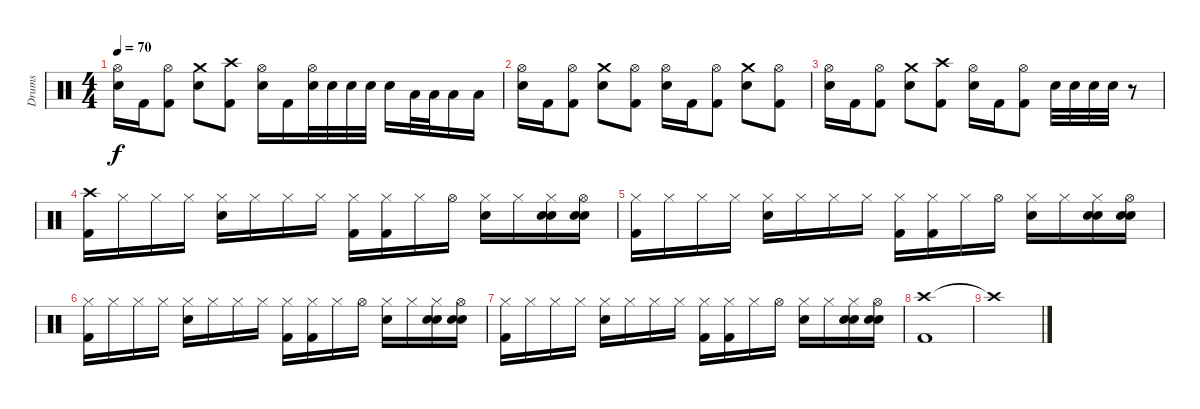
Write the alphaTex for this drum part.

\track ("Drums" "Drums") {instrument percussion}
\staff {score}
\articulation defaults
\ts (4 4)
\tempo 70
\clef neutral
\ks c
("Hi-Hat (open)" "Electric Snare (hit)").16{dy f} "Kick (hit) 2".16 ("Hi-Hat (open)" "Kick (hit) 2").8 ("Crash medium (hit)" "Electric Snare (hit)").8 ("Crash high (hit)" "Kick (hit) 2").8 ("Hi-Hat (open)" "Electric Snare (hit)").16 "Kick (hit) 2".16 ("Hi-Hat (open)" "Electric Snare (hit)").32 "Electric Snare (hit)".32 "Electric Snare (hit)".32 "Electric Snare (hit)".32 "Electric Snare (hit)".16 "Low Floor Tom (hit)".32 "Low Floor Tom (hit)".32 "Low Floor Tom (hit)".16 "Low Floor Tom (hit)".16 |
("Hi-Hat (open)" "Electric Snare (hit)").16 "Kick (hit) 2".16 ("Hi-Hat (open)" "Kick (hit) 2").8 ("Crash medium (hit)" "Electric Snare (hit)").8 ("Hi-Hat (open)" "Kick (hit) 2").8 ("Hi-Hat (open)" "Electric Snare (hit)").16 "Kick (hit) 2".16 ("Hi-Hat (open)" "Kick (hit) 2").8 ("Crash medium (hit)" "Electric Snare (hit)").8 ("Hi-Hat (open)" "Kick (hit) 2").8 |
("Hi-Hat (open)" "Electric Snare (hit)").16 "Kick (hit) 2".16 ("Hi-Hat (open)" "Kick (hit) 2").8 ("Crash medium (hit)" "Electric Snare (hit)").8 ("Crash high (hit)" "Kick (hit) 2").8 ("Hi-Hat (open)" "Electric Snare (hit)").16 "Kick (hit) 2".16 ("Hi-Hat (open)" "Kick (hit) 2").8 "Electric Snare (hit)".32 "Electric Snare (hit)".32 "Electric Snare (hit)".32 "Electric Snare (hit)".32 r.8 |
("Crash high (hit)" "Kick (hit) 2").16 "Hi-Hat (closed)".16 "Hi-Hat (closed)".16 "Hi-Hat (closed)".16 ("Hi-Hat (closed)" "Electric Snare (hit)").16 "Hi-Hat (closed)".16 "Hi-Hat (closed)".16 "Hi-Hat (closed)".16 ("Hi-Hat (closed)" "Kick (hit) 2").16 ("Hi-Hat (closed)" "Kick (hit) 2").16 "Hi-Hat (closed)".16 "Hi-Hat (open)".16 ("Hi-Hat (closed)" "Electric Snare (hit)").16 "Hi-Hat (closed)".16 ("Hi-Hat (closed)" "Hand Clap (hit)" "Electric Snare (hit)").16 ("Hi-Hat (open)" "Hand Clap (hit)" "Electric Snare (hit)").16 |
("Hi-Hat (closed)" "Kick (hit) 2").16 "Hi-Hat (closed)".16 "Hi-Hat (closed)".16 "Hi-Hat (closed)".16 ("Hi-Hat (closed)" "Electric Snare (hit)").16 "Hi-Hat (closed)".16 "Hi-Hat (closed)".16 "Hi-Hat (closed)".16 ("Hi-Hat (closed)" "Kick (hit) 2").16 ("Hi-Hat (closed)" "Kick (hit) 2").16 "Hi-Hat (closed)".16 "Hi-Hat (open)".16 ("Hi-Hat (closed)" "Electric Snare (hit)").16 "Hi-Hat (closed)".16 ("Hi-Hat (closed)" "Hand Clap (hit)" "Electric Snare (hit)").16 ("Hi-Hat (open)" "Hand Clap (hit)" "Electric Snare (hit)").16 |
("Hi-Hat (closed)" "Kick (hit) 2").16 "Hi-Hat (closed)".16 "Hi-Hat (closed)".16 "Hi-Hat (closed)".16 ("Hi-Hat (closed)" "Electric Snare (hit)").16 "Hi-Hat (closed)".16 "Hi-Hat (closed)".16 "Hi-Hat (closed)".16 ("Hi-Hat (closed)" "Kick (hit) 2").16 ("Hi-Hat (closed)" "Kick (hit) 2").16 "Hi-Hat (closed)".16 "Hi-Hat (open)".16 ("Hi-Hat (closed)" "Electric Snare (hit)").16 "Hi-Hat (closed)".16 ("Hi-Hat (closed)" "Hand Clap (hit)" "Electric Snare (hit)").16 ("Hi-Hat (open)" "Hand Clap (hit)" "Electric Snare (hit)").16 |
("Hi-Hat (closed)" "Kick (hit) 2").16 "Hi-Hat (closed)".16 "Hi-Hat (closed)".16 "Hi-Hat (closed)".16 ("Hi-Hat (closed)" "Electric Snare (hit)").16 "Hi-Hat (closed)".16 "Hi-Hat (closed)".16 "Hi-Hat (closed)".16 ("Hi-Hat (closed)" "Kick (hit) 2").16 ("Hi-Hat (closed)" "Kick (hit) 2").16 "Hi-Hat (closed)".16 "Hi-Hat (open)".16 ("Hi-Hat (closed)" "Electric Snare (hit)").16 "Hi-Hat (closed)".16 ("Hi-Hat (closed)" "Hand Clap (hit)" "Electric Snare (hit)").16 ("Hi-Hat (open)" "Hand Clap (hit)" "Electric Snare (hit)").16 |
("Crash high (hit)" "Kick (hit) 2").1 |
"Crash high (hit)"{t}.1
